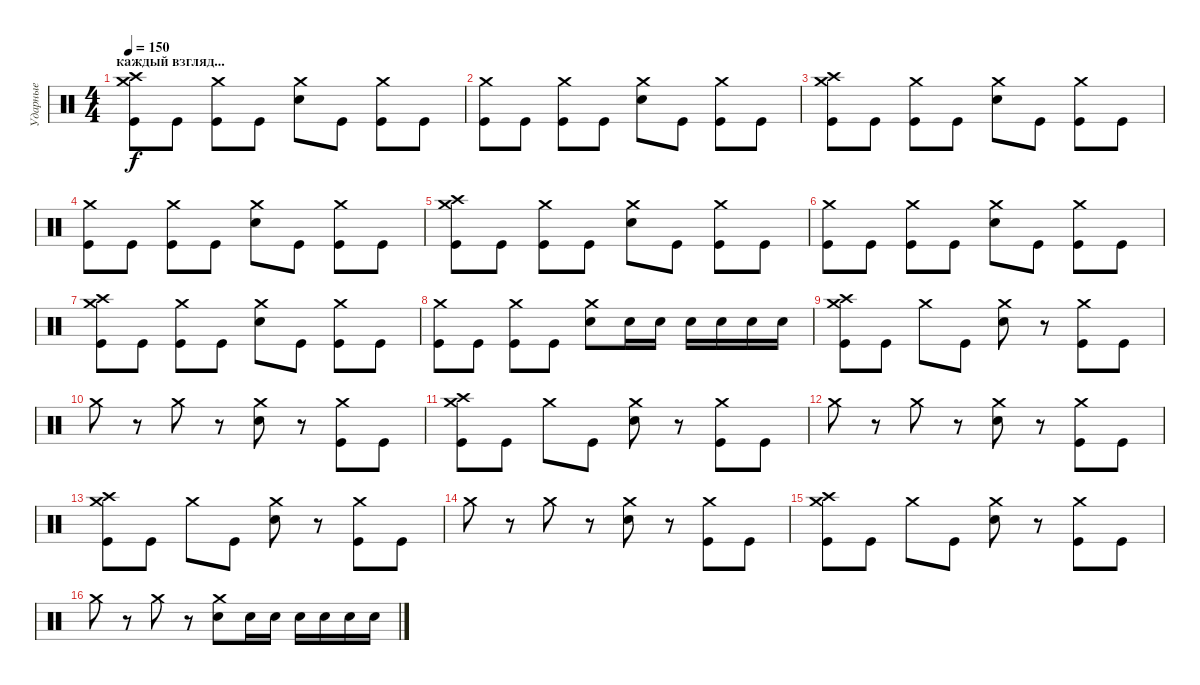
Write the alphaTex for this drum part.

\track ("Ударные" "Ударные") {instrument percussion}
\staff {score}
\articulation defaults
\ts (4 4)
\section ("" "каждый взгляд...")
\tempo 150
\clef neutral
\ks c
("Crash high (hit)" "Crash medium (hit)" "Kick (hit)").8{dy f} "Kick (hit)".8 ("Crash medium (hit)" "Kick (hit)").8 "Kick (hit)".8 ("Crash medium (hit)" "Electric Snare (hit)").8 "Kick (hit)".8 ("Crash medium (hit)" "Kick (hit)").8 "Kick (hit)".8 |
("Crash medium (hit)" "Kick (hit)").8 "Kick (hit)".8 ("Crash medium (hit)" "Kick (hit)").8 "Kick (hit)".8 ("Crash medium (hit)" "Electric Snare (hit)").8 "Kick (hit)".8 ("Crash medium (hit)" "Kick (hit)").8 "Kick (hit)".8 |
("Crash high (hit)" "Crash medium (hit)" "Kick (hit)").8 "Kick (hit)".8 ("Crash medium (hit)" "Kick (hit)").8 "Kick (hit)".8 ("Crash medium (hit)" "Electric Snare (hit)").8 "Kick (hit)".8 ("Crash medium (hit)" "Kick (hit)").8 "Kick (hit)".8 |
("Crash medium (hit)" "Kick (hit)").8 "Kick (hit)".8 ("Crash medium (hit)" "Kick (hit)").8 "Kick (hit)".8 ("Crash medium (hit)" "Electric Snare (hit)").8 "Kick (hit)".8 ("Crash medium (hit)" "Kick (hit)").8 "Kick (hit)".8 |
("Crash high (hit)" "Crash medium (hit)" "Kick (hit)").8 "Kick (hit)".8 ("Crash medium (hit)" "Kick (hit)").8 "Kick (hit)".8 ("Crash medium (hit)" "Electric Snare (hit)").8 "Kick (hit)".8 ("Crash medium (hit)" "Kick (hit)").8 "Kick (hit)".8 |
("Crash medium (hit)" "Kick (hit)").8 "Kick (hit)".8 ("Crash medium (hit)" "Kick (hit)").8 "Kick (hit)".8 ("Crash medium (hit)" "Electric Snare (hit)").8 "Kick (hit)".8 ("Crash medium (hit)" "Kick (hit)").8 "Kick (hit)".8 |
("Crash high (hit)" "Crash medium (hit)" "Kick (hit)").8 "Kick (hit)".8 ("Crash medium (hit)" "Kick (hit)").8 "Kick (hit)".8 ("Crash medium (hit)" "Electric Snare (hit)").8 "Kick (hit)".8 ("Crash medium (hit)" "Kick (hit)").8 "Kick (hit)".8 |
("Crash medium (hit)" "Kick (hit)").8 "Kick (hit)".8 ("Crash medium (hit)" "Kick (hit)").8 "Kick (hit)".8 ("Crash medium (hit)" "Electric Snare (hit)").8 "Electric Snare (hit)".16 "Electric Snare (hit)".16 "Electric Snare (hit)".16 "Electric Snare (hit)".16 "Electric Snare (hit)".16 "Electric Snare (hit)".16 |
("Crash high (hit)" "Crash medium (hit)" "Kick (hit)").8 "Kick (hit)".8 "Crash medium (hit)".8 "Kick (hit)".8 ("Crash medium (hit)" "Electric Snare (hit)").8 r.8 ("Crash medium (hit)" "Kick (hit)").8 "Kick (hit)".8 |
"Crash medium (hit)".8 r.8 "Crash medium (hit)".8 r.8 ("Crash medium (hit)" "Electric Snare (hit)").8 r.8 ("Crash medium (hit)" "Kick (hit)").8 "Kick (hit)".8 |
("Crash high (hit)" "Crash medium (hit)" "Kick (hit)").8 "Kick (hit)".8 "Crash medium (hit)".8 "Kick (hit)".8 ("Crash medium (hit)" "Electric Snare (hit)").8 r.8 ("Crash medium (hit)" "Kick (hit)").8 "Kick (hit)".8 |
"Crash medium (hit)".8 r.8 "Crash medium (hit)".8 r.8 ("Crash medium (hit)" "Electric Snare (hit)").8 r.8 ("Crash medium (hit)" "Kick (hit)").8 "Kick (hit)".8 |
("Crash high (hit)" "Crash medium (hit)" "Kick (hit)").8 "Kick (hit)".8 "Crash medium (hit)".8 "Kick (hit)".8 ("Crash medium (hit)" "Electric Snare (hit)").8 r.8 ("Crash medium (hit)" "Kick (hit)").8 "Kick (hit)".8 |
"Crash medium (hit)".8 r.8 "Crash medium (hit)".8 r.8 ("Crash medium (hit)" "Electric Snare (hit)").8 r.8 ("Crash medium (hit)" "Kick (hit)").8 "Kick (hit)".8 |
("Crash high (hit)" "Crash medium (hit)" "Kick (hit)").8 "Kick (hit)".8 "Crash medium (hit)".8 "Kick (hit)".8 ("Crash medium (hit)" "Electric Snare (hit)").8 r.8 ("Crash medium (hit)" "Kick (hit)").8 "Kick (hit)".8 |
"Crash medium (hit)".8 r.8 "Crash medium (hit)".8 r.8 ("Crash medium (hit)" "Electric Snare (hit)").8 "Electric Snare (hit)".16 "Electric Snare (hit)".16 "Electric Snare (hit)".16 "Electric Snare (hit)".16 "Electric Snare (hit)".16 "Electric Snare (hit)".16
